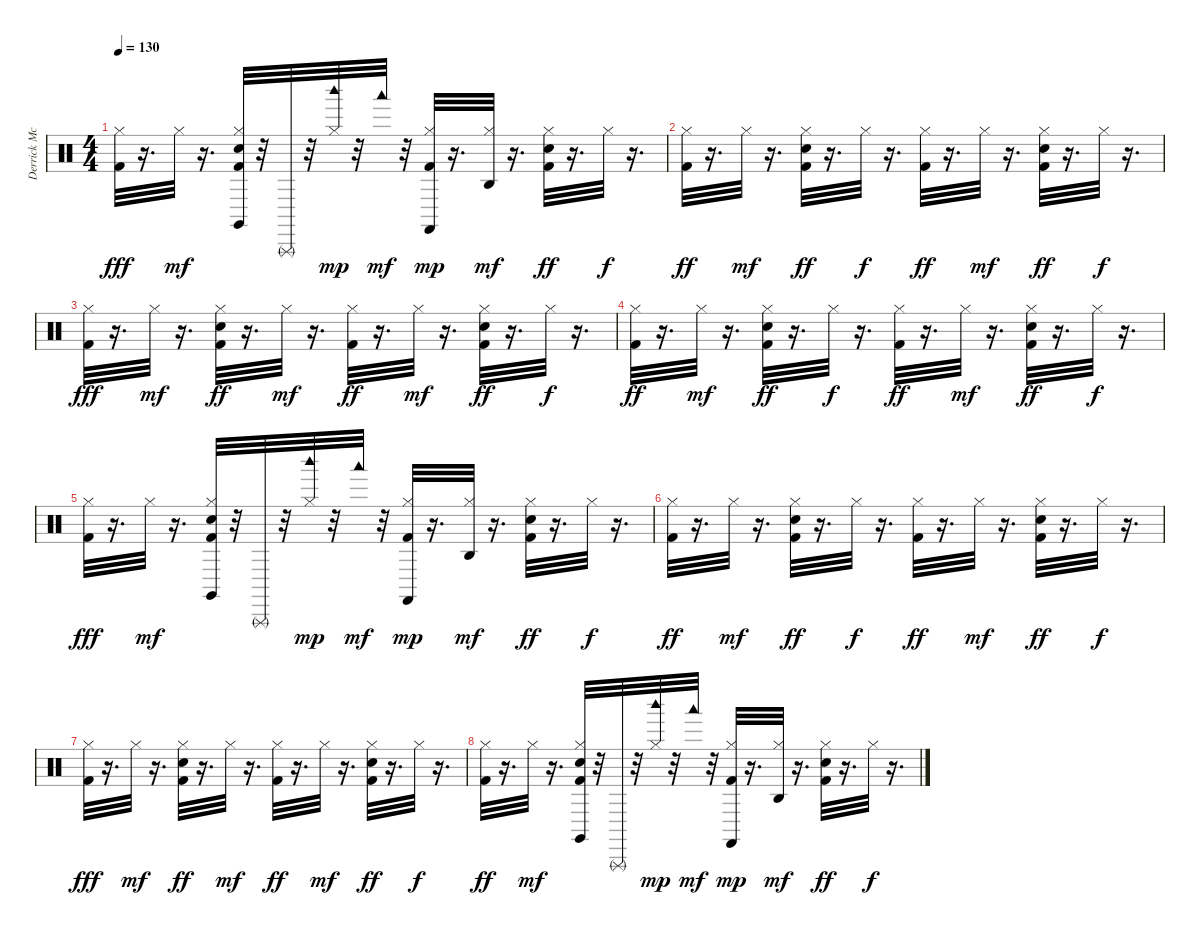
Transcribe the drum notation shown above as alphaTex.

\track ("Derrick McKenzie\\Sola Akingbola - Drums" "Derrick Mc") {instrument percussion}
\staff {score}
\articulation defaults
\ts (4 4)
\tempo 130
\clef neutral
\ks c
("Kick (hit) 2" "Hi-Hat (closed)").32{dy fff} r.16{d} "Hi-Hat (closed)".32{dy mf} r.16{d} ("Kick (hit) 2" "Electric Snare (hit)" "Hi-Hat (closed)" "Claves (hit)").32 r.32 "Triangle (rnute)".32 r.32 ("Hi-Hat (closed)" "Woodblock high (hit)").32{dy mp} r.32 "Woodblock low (hit)".32{dy mf} r.32 ("Kick (hit) 2" "Hi-Hat (closed)" "Castanets (hit)").32{dy mp} r.16{d} ("Hi-Hat (closed)" "Agogo high (hit)").32{dy mf} r.16{d} ("Kick (hit) 2" "Electric Snare (hit)" "Hi-Hat (closed)").32{dy ff} r.16{d} "Hi-Hat (closed)".32{dy f} r.16{d} |
("Kick (hit) 2" "Hi-Hat (closed)").32{dy ff} r.16{d} "Hi-Hat (closed)".32{dy mf} r.16{d} ("Kick (hit) 2" "Electric Snare (hit)" "Hi-Hat (closed)").32{dy ff} r.16{d} "Hi-Hat (closed)".32{dy f} r.16{d} ("Kick (hit) 2" "Hi-Hat (closed)").32{dy ff} r.16{d} "Hi-Hat (closed)".32{dy mf} r.16{d} ("Kick (hit) 2" "Electric Snare (hit)" "Hi-Hat (closed)").32{dy ff} r.16{d} "Hi-Hat (closed)".32{dy f} r.16{d} |
("Kick (hit) 2" "Hi-Hat (closed)").32{dy fff} r.16{d} "Hi-Hat (closed)".32{dy mf} r.16{d} ("Kick (hit) 2" "Electric Snare (hit)" "Hi-Hat (closed)").32{dy ff} r.16{d} "Hi-Hat (closed)".32{dy mf} r.16{d} ("Kick (hit) 2" "Hi-Hat (closed)").32{dy ff} r.16{d} "Hi-Hat (closed)".32{dy mf} r.16{d} ("Kick (hit) 2" "Electric Snare (hit)" "Hi-Hat (closed)").32{dy ff} r.16{d} "Hi-Hat (closed)".32{dy f} r.16{d} |
("Kick (hit) 2" "Hi-Hat (closed)").32{dy ff} r.16{d} "Hi-Hat (closed)".32{dy mf} r.16{d} ("Kick (hit) 2" "Electric Snare (hit)" "Hi-Hat (closed)").32{dy ff} r.16{d} "Hi-Hat (closed)".32{dy f} r.16{d} ("Kick (hit) 2" "Hi-Hat (closed)").32{dy ff} r.16{d} "Hi-Hat (closed)".32{dy mf} r.16{d} ("Kick (hit) 2" "Electric Snare (hit)" "Hi-Hat (closed)").32{dy ff} r.16{d} "Hi-Hat (closed)".32{dy f} r.16{d} |
("Kick (hit) 2" "Hi-Hat (closed)").32{dy fff} r.16{d} "Hi-Hat (closed)".32{dy mf} r.16{d} ("Kick (hit) 2" "Electric Snare (hit)" "Hi-Hat (closed)" "Claves (hit)").32 r.32 "Triangle (rnute)".32 r.32 ("Hi-Hat (closed)" "Woodblock high (hit)").32{dy mp} r.32 "Woodblock low (hit)".32{dy mf} r.32 ("Kick (hit) 2" "Hi-Hat (closed)" "Castanets (hit)").32{dy mp} r.16{d} ("Hi-Hat (closed)" "Agogo high (hit)").32{dy mf} r.16{d} ("Kick (hit) 2" "Electric Snare (hit)" "Hi-Hat (closed)").32{dy ff} r.16{d} "Hi-Hat (closed)".32{dy f} r.16{d} |
("Kick (hit) 2" "Hi-Hat (closed)").32{dy ff} r.16{d} "Hi-Hat (closed)".32{dy mf} r.16{d} ("Kick (hit) 2" "Electric Snare (hit)" "Hi-Hat (closed)").32{dy ff} r.16{d} "Hi-Hat (closed)".32{dy f} r.16{d} ("Kick (hit) 2" "Hi-Hat (closed)").32{dy ff} r.16{d} "Hi-Hat (closed)".32{dy mf} r.16{d} ("Kick (hit) 2" "Electric Snare (hit)" "Hi-Hat (closed)").32{dy ff} r.16{d} "Hi-Hat (closed)".32{dy f} r.16{d} |
("Kick (hit) 2" "Hi-Hat (closed)").32{dy fff} r.16{d} "Hi-Hat (closed)".32{dy mf} r.16{d} ("Kick (hit) 2" "Electric Snare (hit)" "Hi-Hat (closed)").32{dy ff} r.16{d} "Hi-Hat (closed)".32{dy mf} r.16{d} ("Kick (hit) 2" "Hi-Hat (closed)").32{dy ff} r.16{d} "Hi-Hat (closed)".32{dy mf} r.16{d} ("Kick (hit) 2" "Electric Snare (hit)" "Hi-Hat (closed)").32{dy ff} r.16{d} "Hi-Hat (closed)".32{dy f} r.16{d} |
("Kick (hit) 2" "Hi-Hat (closed)").32{dy ff} r.16{d} "Hi-Hat (closed)".32{dy mf} r.16{d} ("Kick (hit) 2" "Electric Snare (hit)" "Hi-Hat (closed)" "Claves (hit)").32 r.32 "Triangle (rnute)".32 r.32 ("Hi-Hat (closed)" "Woodblock high (hit)").32{dy mp} r.32 "Woodblock low (hit)".32{dy mf} r.32 ("Kick (hit) 2" "Hi-Hat (closed)" "Castanets (hit)").32{dy mp} r.16{d} ("Hi-Hat (closed)" "Agogo high (hit)").32{dy mf} r.16{d} ("Kick (hit) 2" "Electric Snare (hit)" "Hi-Hat (closed)").32{dy ff} r.16{d} "Hi-Hat (closed)".32{dy f} r.16{d}
